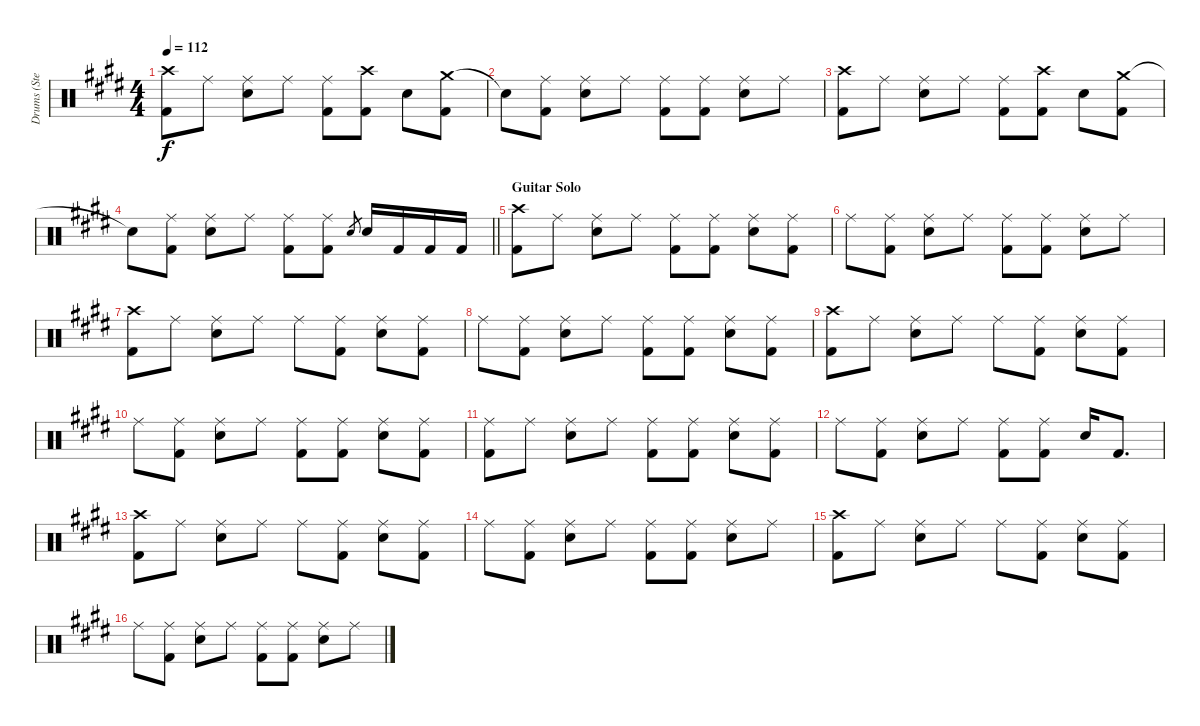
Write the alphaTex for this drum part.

\track ("Drums (Steven)" "Drums (Ste") {instrument percussion}
\staff {score}
\articulation defaults
\ts (4 4)
\tempo 112
\clef neutral
\ks e
("Crash high (hit)" "Kick (hit) 2").8{dy f} "Ride (middle)".8 ("Ride (middle)" "Snare (hit) 2").8 "Ride (middle)".8 ("Ride (middle)" "Kick (hit) 2").8 ("Crash high (hit)" "Kick (hit) 2").8 "Snare (hit) 2".8 ("Crash medium (hit)" "Kick (hit) 2").8 |
"Snare (hit)"{t}.8 ("Ride (middle)" "Kick (hit) 2").8 ("Ride (middle)" "Snare (hit) 2").8 "Ride (middle)".8 ("Ride (middle)" "Kick (hit) 2").8 ("Ride (middle)" "Kick (hit) 2").8 ("Ride (middle)" "Snare (hit) 2").8 "Ride (middle)".8 |
("Crash high (hit)" "Kick (hit) 2").8 "Ride (middle)".8 ("Ride (middle)" "Snare (hit) 2").8 "Ride (middle)".8 ("Ride (middle)" "Kick (hit) 2").8 ("Crash high (hit)" "Kick (hit) 2").8 "Snare (hit) 2".8 ("Crash medium (hit)" "Kick (hit) 2").8 |
\barLineRight lightlight "Snare (hit)"{t}.8
("Ride (middle)" "Kick (hit) 2").8 ("Ride (middle)" "Snare (hit) 2").8 "Ride (middle)".8 ("Ride (middle)" "Kick (hit) 2").8 ("Ride (middle)" "Kick (hit) 2").8 "Snare (hit) 2".8{gr} "Snare (hit) 2".16 "Kick (hit) 2".16 "Kick (hit) 2".16 "Kick (hit) 2".16 |
\section ("" "Guitar Solo")
("Crash high (hit)" "Kick (hit) 2").8 "Ride (middle)".8 ("Ride (middle)" "Snare (hit) 2").8 "Ride (middle)".8 ("Ride (middle)" "Kick (hit) 2").8 ("Ride (middle)" "Kick (hit) 2").8 ("Ride (middle)" "Snare (hit) 2").8 ("Ride (middle)" "Kick (hit) 2").8 |
"Ride (middle)".8 ("Ride (middle)" "Kick (hit) 2").8 ("Ride (middle)" "Snare (hit) 2").8 "Ride (middle)".8 ("Ride (middle)" "Kick (hit) 2").8 ("Ride (middle)" "Kick (hit) 2").8 ("Ride (middle)" "Snare (hit) 2").8 "Ride (middle)".8 |
("Crash high (hit)" "Kick (hit) 2").8 "Ride (middle)".8 ("Ride (middle)" "Snare (hit) 2").8 "Ride (middle)".8 "Ride (middle)".8 ("Ride (middle)" "Kick (hit) 2").8 ("Ride (middle)" "Snare (hit) 2").8 ("Ride (middle)" "Kick (hit) 2").8 |
"Ride (middle)".8 ("Ride (middle)" "Kick (hit) 2").8 ("Ride (middle)" "Snare (hit) 2").8 "Ride (middle)".8 ("Ride (middle)" "Kick (hit) 2").8 ("Ride (middle)" "Kick (hit) 2").8 ("Ride (middle)" "Snare (hit) 2").8 ("Ride (middle)" "Kick (hit) 2").8 |
("Crash high (hit)" "Kick (hit) 2").8 "Ride (middle)".8 ("Ride (middle)" "Snare (hit) 2").8 "Ride (middle)".8 "Ride (middle)".8 ("Ride (middle)" "Kick (hit) 2").8 ("Ride (middle)" "Snare (hit) 2").8 ("Ride (middle)" "Kick (hit) 2").8 |
"Ride (middle)".8 ("Ride (middle)" "Kick (hit) 2").8 ("Ride (middle)" "Snare (hit) 2").8 "Ride (middle)".8 ("Ride (middle)" "Kick (hit) 2").8 ("Ride (middle)" "Kick (hit) 2").8 ("Ride (middle)" "Snare (hit) 2").8 ("Ride (middle)" "Kick (hit) 2").8 |
("Ride (middle)" "Kick (hit) 2").8 "Ride (middle)".8 ("Ride (middle)" "Snare (hit) 2").8 "Ride (middle)".8 ("Ride (middle)" "Kick (hit) 2").8 ("Ride (middle)" "Kick (hit) 2").8 ("Ride (middle)" "Snare (hit) 2").8 ("Ride (middle)" "Kick (hit) 2").8 |
"Ride (middle)".8 ("Ride (middle)" "Kick (hit) 2").8 ("Ride (middle)" "Snare (hit) 2").8 "Ride (middle)".8 ("Ride (middle)" "Kick (hit) 2").8 ("Ride (middle)" "Kick (hit) 2").8 "Snare (hit) 2".16 "Kick (hit) 2".8{d} |
("Crash high (hit)" "Kick (hit) 2").8 "Ride (middle)".8 ("Ride (middle)" "Snare (hit) 2").8 "Ride (middle)".8 "Ride (middle)".8 ("Ride (middle)" "Kick (hit) 2").8 ("Ride (middle)" "Snare (hit) 2").8 ("Ride (middle)" "Kick (hit) 2").8 |
"Ride (middle)".8 ("Ride (middle)" "Kick (hit) 2").8 ("Ride (middle)" "Snare (hit) 2").8 "Ride (middle)".8 ("Ride (middle)" "Kick (hit) 2").8 ("Ride (middle)" "Kick (hit) 2").8 ("Ride (middle)" "Snare (hit) 2").8 "Ride (middle)".8 |
("Crash high (hit)" "Kick (hit) 2").8 "Ride (middle)".8 ("Ride (middle)" "Snare (hit) 2").8 "Ride (middle)".8 "Ride (middle)".8 ("Ride (middle)" "Kick (hit) 2").8 ("Ride (middle)" "Snare (hit) 2").8 ("Ride (middle)" "Kick (hit) 2").8 |
"Ride (middle)".8 ("Ride (middle)" "Kick (hit) 2").8 ("Ride (middle)" "Snare (hit) 2").8 "Ride (middle)".8 ("Ride (middle)" "Kick (hit) 2").8 ("Ride (middle)" "Kick (hit) 2").8 ("Ride (middle)" "Snare (hit) 2").8 "Ride (middle)".8
